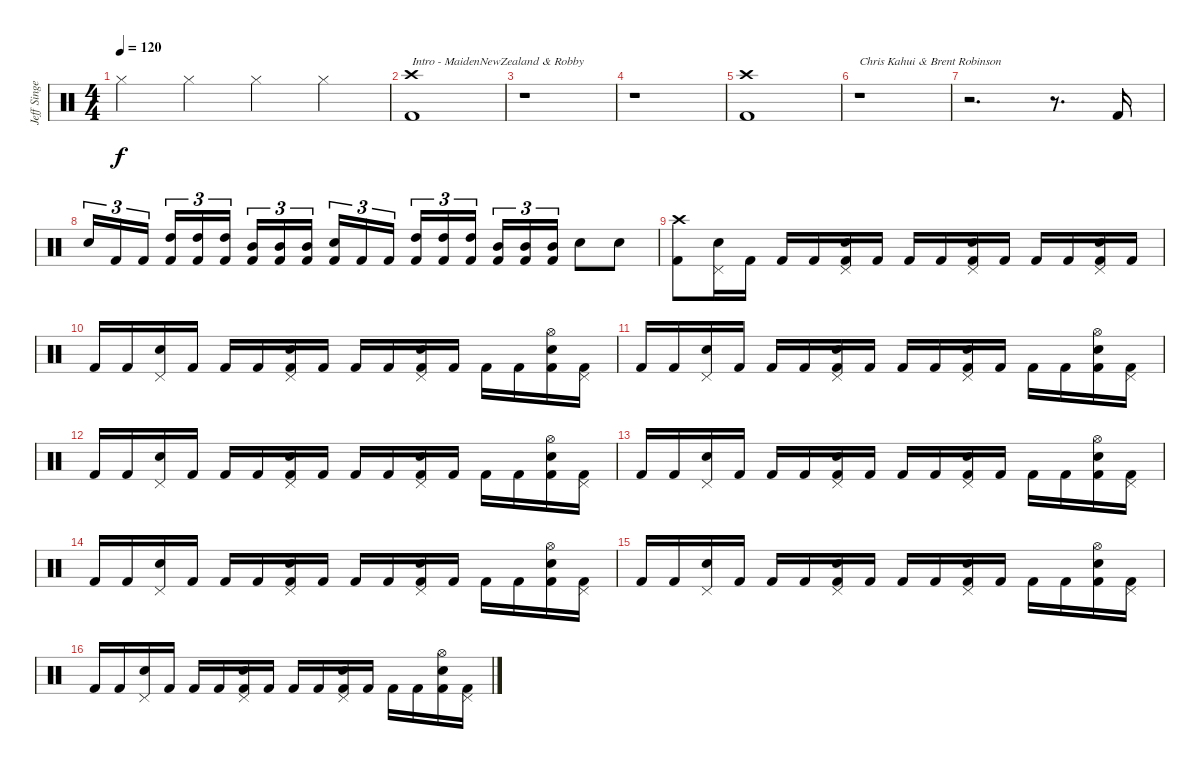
\track ("Jeff Singer" "Jeff Singe") {instrument percussion}
\staff {score}
\articulation defaults
\ts (4 4)
\tempo 120
\clef neutral
\ks c "Hi-Hat (closed)".4{dy f} "Hi-Hat (closed)".4 "Hi-Hat (closed)".4 "Hi-Hat (closed)".4
|
("Crash high (hit)" "Kick (hit) 2").1{txt "Intro - MaidenNewZealand & Robby"} |
r.1 |
r.1 |
("Crash high (hit)" "Kick (hit) 2").1 |
r.1{txt "Chris Kahui & Brent Robinson"} |
r.2{d} r.8{d} "Kick (hit) 2".16 |
"Snare (hit) 2".16{tu (3 2)} "Kick (hit) 2".16{tu (3 2)} "Kick (hit) 2".16{tu (3 2)} ("High Tom (hit)" "Kick (hit) 2").16{tu (3 2)} ("High Tom (hit)" "Kick (hit) 2").16{tu (3 2)} ("High Tom (hit)" "Kick (hit) 2").16{tu (3 2)} ("Mid Tom (hit)" "Kick (hit) 2").16{tu (3 2)} ("Mid Tom (hit)" "Kick (hit) 2").16{tu (3 2)} ("Mid Tom (hit)" "Kick (hit) 2").16{tu (3 2)} ("Snare (hit) 2" "Kick (hit) 2").16{tu (3 2)} "Kick (hit) 2".16{tu (3 2)} "Kick (hit) 2".16{tu (3 2)} ("High Tom (hit)" "Kick (hit) 2").16{tu (3 2)} ("High Tom (hit)" "Kick (hit) 2").16{tu (3 2)} ("High Tom (hit)" "Kick (hit) 2").16{tu (3 2)} ("Mid Tom (hit)" "Kick (hit) 2").16{tu (3 2)} ("Mid Tom (hit)" "Kick (hit) 2").16{tu (3 2)} ("Mid Tom (hit)" "Kick (hit) 2").16{tu (3 2)} "Snare (hit) 2".8 "Snare (hit) 2".8 |
("Crash high (hit)" "Kick (hit) 2").8 ("Pedal Hi-Hat (hit)" "Snare (hit) 2").16 "Kick (hit) 2".16 "Kick (hit) 2".16 "Kick (hit) 2".16 ("Pedal Hi-Hat (hit)" "Snare (hit) 2" "Kick (hit) 2").16 "Kick (hit) 2".16 "Kick (hit) 2".16 "Kick (hit) 2".16 ("Pedal Hi-Hat (hit)" "Snare (hit) 2" "Kick (hit) 2").16 "Kick (hit) 2".16 "Kick (hit) 2".16 "Kick (hit) 2".16 ("Pedal Hi-Hat (hit)" "Snare (hit) 2" "Kick (hit) 2").16 "Kick (hit) 2".16 |
"Kick (hit) 2".16 "Kick (hit) 2".16 ("Pedal Hi-Hat (hit)" "Snare (hit) 2").16 "Kick (hit) 2".16 "Kick (hit) 2".16 "Kick (hit) 2".16 ("Pedal Hi-Hat (hit)" "Snare (hit) 2" "Kick (hit) 2").16 "Kick (hit) 2".16 "Kick (hit) 2".16 "Kick (hit) 2".16 ("Pedal Hi-Hat (hit)" "Snare (hit) 2" "Kick (hit) 2").16 "Kick (hit) 2".16 "Kick (hit) 2".16 "Kick (hit) 2".16 ("Hi-Hat (open)" "Snare (hit) 2" "Kick (hit) 2").16 ("Pedal Hi-Hat (hit)" "Kick (hit) 2").16 |
"Kick (hit) 2".16 "Kick (hit) 2".16 ("Pedal Hi-Hat (hit)" "Snare (hit) 2").16 "Kick (hit) 2".16 "Kick (hit) 2".16 "Kick (hit) 2".16 ("Pedal Hi-Hat (hit)" "Snare (hit) 2" "Kick (hit) 2").16 "Kick (hit) 2".16 "Kick (hit) 2".16 "Kick (hit) 2".16 ("Pedal Hi-Hat (hit)" "Snare (hit) 2" "Kick (hit) 2").16 "Kick (hit) 2".16 "Kick (hit) 2".16 "Kick (hit) 2".16 ("Hi-Hat (open)" "Snare (hit) 2" "Kick (hit) 2").16 ("Pedal Hi-Hat (hit)" "Kick (hit) 2").16 |
"Kick (hit) 2".16 "Kick (hit) 2".16 ("Pedal Hi-Hat (hit)" "Snare (hit) 2").16 "Kick (hit) 2".16 "Kick (hit) 2".16 "Kick (hit) 2".16 ("Pedal Hi-Hat (hit)" "Snare (hit) 2" "Kick (hit) 2").16 "Kick (hit) 2".16 "Kick (hit) 2".16 "Kick (hit) 2".16 ("Pedal Hi-Hat (hit)" "Snare (hit) 2" "Kick (hit) 2").16 "Kick (hit) 2".16 "Kick (hit) 2".16 "Kick (hit) 2".16 ("Hi-Hat (open)" "Snare (hit) 2" "Kick (hit) 2").16 ("Pedal Hi-Hat (hit)" "Kick (hit) 2").16 |
"Kick (hit) 2".16 "Kick (hit) 2".16 ("Pedal Hi-Hat (hit)" "Snare (hit) 2").16 "Kick (hit) 2".16 "Kick (hit) 2".16 "Kick (hit) 2".16 ("Pedal Hi-Hat (hit)" "Snare (hit) 2" "Kick (hit) 2").16 "Kick (hit) 2".16 "Kick (hit) 2".16 "Kick (hit) 2".16 ("Pedal Hi-Hat (hit)" "Snare (hit) 2" "Kick (hit) 2").16 "Kick (hit) 2".16 "Kick (hit) 2".16 "Kick (hit) 2".16 ("Hi-Hat (open)" "Snare (hit) 2" "Kick (hit) 2").16 ("Pedal Hi-Hat (hit)" "Kick (hit) 2").16 |
"Kick (hit) 2".16 "Kick (hit) 2".16 ("Pedal Hi-Hat (hit)" "Snare (hit) 2").16 "Kick (hit) 2".16 "Kick (hit) 2".16 "Kick (hit) 2".16 ("Pedal Hi-Hat (hit)" "Snare (hit) 2" "Kick (hit) 2").16 "Kick (hit) 2".16 "Kick (hit) 2".16 "Kick (hit) 2".16 ("Pedal Hi-Hat (hit)" "Snare (hit) 2" "Kick (hit) 2").16 "Kick (hit) 2".16 "Kick (hit) 2".16 "Kick (hit) 2".16 ("Hi-Hat (open)" "Snare (hit) 2" "Kick (hit) 2").16 ("Pedal Hi-Hat (hit)" "Kick (hit) 2").16 |
"Kick (hit) 2".16 "Kick (hit) 2".16 ("Pedal Hi-Hat (hit)" "Snare (hit) 2").16 "Kick (hit) 2".16 "Kick (hit) 2".16 "Kick (hit) 2".16 ("Pedal Hi-Hat (hit)" "Snare (hit) 2" "Kick (hit) 2").16 "Kick (hit) 2".16 "Kick (hit) 2".16 "Kick (hit) 2".16 ("Pedal Hi-Hat (hit)" "Snare (hit) 2" "Kick (hit) 2").16 "Kick (hit) 2".16 "Kick (hit) 2".16 "Kick (hit) 2".16 ("Hi-Hat (open)" "Snare (hit) 2" "Kick (hit) 2").16 ("Pedal Hi-Hat (hit)" "Kick (hit) 2").16 |
"Kick (hit) 2".16 "Kick (hit) 2".16 ("Pedal Hi-Hat (hit)" "Snare (hit) 2").16 "Kick (hit) 2".16 "Kick (hit) 2".16 "Kick (hit) 2".16 ("Pedal Hi-Hat (hit)" "Snare (hit) 2" "Kick (hit) 2").16 "Kick (hit) 2".16 "Kick (hit) 2".16 "Kick (hit) 2".16 ("Pedal Hi-Hat (hit)" "Snare (hit) 2" "Kick (hit) 2").16 "Kick (hit) 2".16 "Kick (hit) 2".16 "Kick (hit) 2".16 ("Hi-Hat (open)" "Snare (hit) 2" "Kick (hit) 2").16 ("Pedal Hi-Hat (hit)" "Kick (hit) 2").16
